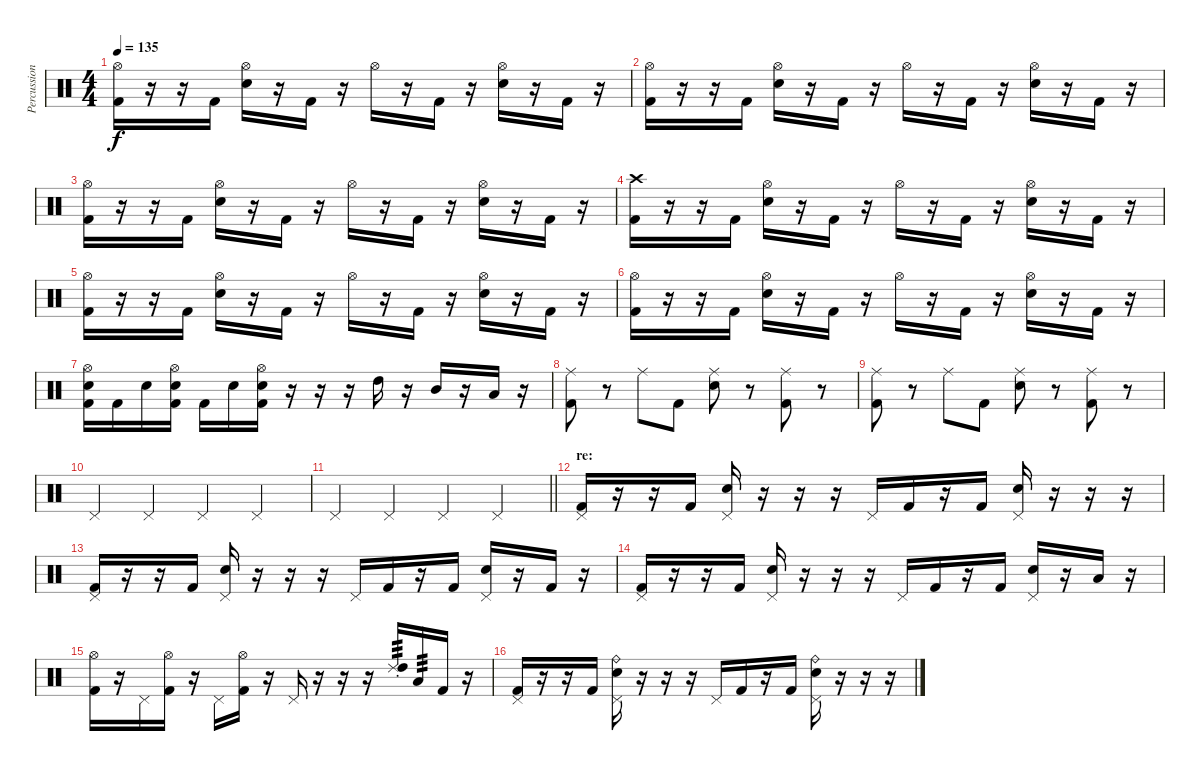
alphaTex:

\track ("Percussion" "Percussion") {instrument percussion}
\staff {score}
\articulation defaults
\ts (4 4)
\tempo 135
\clef neutral
\ks c
("Hi-Hat (open)" "Kick (hit) 2").16{dy f} r.16 r.16 "Kick (hit) 2".16 ("Hi-Hat (open)" "Electric Snare (hit)").16 r.16 "Kick (hit) 2".16 r.16 "Hi-Hat (open)".16 r.16 "Kick (hit) 2".16 r.16 ("Hi-Hat (open)" "Electric Snare (hit)").16 r.16 "Kick (hit) 2".16 r.16 |
("Hi-Hat (open)" "Kick (hit) 2").16 r.16 r.16 "Kick (hit) 2".16 ("Hi-Hat (open)" "Electric Snare (hit)").16 r.16 "Kick (hit) 2".16 r.16 "Hi-Hat (open)".16 r.16 "Kick (hit) 2".16 r.16 ("Hi-Hat (open)" "Electric Snare (hit)").16 r.16 "Kick (hit) 2".16 r.16 |
("Hi-Hat (open)" "Kick (hit) 2").16 r.16 r.16 "Kick (hit) 2".16 ("Hi-Hat (open)" "Electric Snare (hit)").16 r.16 "Kick (hit) 2".16 r.16 "Hi-Hat (open)".16 r.16 "Kick (hit) 2".16 r.16 ("Hi-Hat (open)" "Electric Snare (hit)").16 r.16 "Kick (hit) 2".16 r.16 |
("Crash high (hit)" "Kick (hit) 2").16 r.16 r.16 "Kick (hit) 2".16 ("Hi-Hat (open)" "Electric Snare (hit)").16 r.16 "Kick (hit) 2".16 r.16 "Hi-Hat (open)".16 r.16 "Kick (hit) 2".16 r.16 ("Hi-Hat (open)" "Electric Snare (hit)").16 r.16 "Kick (hit) 2".16 r.16 |
("Hi-Hat (open)" "Kick (hit) 2").16 r.16 r.16 "Kick (hit) 2".16 ("Hi-Hat (open)" "Electric Snare (hit)").16 r.16 "Kick (hit) 2".16 r.16 "Hi-Hat (open)".16 r.16 "Kick (hit) 2".16 r.16 ("Hi-Hat (open)" "Electric Snare (hit)").16 r.16 "Kick (hit) 2".16 r.16 |
("Hi-Hat (open)" "Kick (hit) 2").16 r.16 r.16 "Kick (hit) 2".16 ("Hi-Hat (open)" "Electric Snare (hit)").16 r.16 "Kick (hit) 2".16 r.16 "Hi-Hat (open)".16 r.16 "Kick (hit) 2".16 r.16 ("Hi-Hat (open)" "Electric Snare (hit)").16 r.16 "Kick (hit) 2".16 r.16 |
("Hi-Hat (open)" "Electric Snare (hit)" "Kick (hit) 2").16 "Kick (hit) 2".16 "Electric Snare (hit)".16 ("Hi-Hat (open)" "Electric Snare (hit)" "Kick (hit) 2").16 "Kick (hit) 2".16 "Electric Snare (hit)".16 ("Hi-Hat (open)" "Electric Snare (hit)" "Kick (hit) 2").16 r.16 r.16 r.16 "High Tom (hit)".16 r.16 "Mid Tom (hit)".16 r.16 "Low Tom (hit)".16 r.16 |
("Ride (middle)" "Kick (hit) 2").8 r.8 "Ride (middle)".8 "Kick (hit) 2".8 ("Ride (middle)" "Electric Snare (hit)").8 r.8 ("Ride (middle)" "Kick (hit) 2").8 r.8 |
("Ride (middle)" "Kick (hit) 2").8 r.8 "Ride (middle)".8 "Kick (hit) 2".8 ("Ride (middle)" "Electric Snare (hit)").8 r.8 ("Ride (middle)" "Kick (hit) 2").8 r.8 |
"Pedal Hi-Hat (hit)".4 "Pedal Hi-Hat (hit)".4 "Pedal Hi-Hat (hit)".4 "Pedal Hi-Hat (hit)".4 |
\barLineRight lightlight "Pedal Hi-Hat (hit)".4 "Pedal Hi-Hat (hit)".4 "Pedal Hi-Hat (hit)".4 "Pedal Hi-Hat (hit)".4
|
\section ("" "re:")
("Pedal Hi-Hat (hit)" "Kick (hit) 2").16 r.16 r.16 "Kick (hit) 2".16 ("Electric Snare (hit)" "Pedal Hi-Hat (hit)").16 r.16 r.16 r.16 "Pedal Hi-Hat (hit)".16 "Kick (hit) 2".16 r.16 "Kick (hit) 2".16 ("Electric Snare (hit)" "Pedal Hi-Hat (hit)").16 r.16 r.16 r.16 |
("Pedal Hi-Hat (hit)" "Kick (hit) 2").16 r.16 r.16 "Kick (hit) 2".16 ("Electric Snare (hit)" "Pedal Hi-Hat (hit)").16 r.16 r.16 r.16 "Pedal Hi-Hat (hit)".16 "Kick (hit) 2".16 r.16 "Kick (hit) 2".16 ("Electric Snare (hit)" "Pedal Hi-Hat (hit)").16 r.16 "Kick (hit) 2".16 r.16 |
("Pedal Hi-Hat (hit)" "Kick (hit) 2").16 r.16 r.16 "Kick (hit) 2".16 ("Electric Snare (hit)" "Pedal Hi-Hat (hit)").16 r.16 r.16 r.16 "Pedal Hi-Hat (hit)".16 "Kick (hit) 2".16 r.16 "Kick (hit) 2".16 ("Electric Snare (hit)" "Pedal Hi-Hat (hit)").16 r.16 "Low Tom (hit)".16 r.16 |
("Hi-Hat (open)" "Kick (hit) 2").16 r.16 "Pedal Hi-Hat (hit)".16 ("Hi-Hat (open)" "Kick (hit) 2").16 r.16 "Pedal Hi-Hat (hit)".16 ("Hi-Hat (open)" "Kick (hit) 2").16 r.16 "Pedal Hi-Hat (hit)".16 r.16 r.16 r.16 ("Ride (choke) 2" "High Tom (hit)").16{tp 3} "Low Tom (hit)".16{tp 3} "Kick (hit) 2".16 r.16 |
("Pedal Hi-Hat (hit)" "Kick (hit) 2").16 r.16 r.16 "Kick (hit) 2".16 ("Ride (bell)" "Electric Snare (hit)" "Pedal Hi-Hat (hit)").16 r.16 r.16 r.16 "Pedal Hi-Hat (hit)".16 "Kick (hit) 2".16 r.16 "Kick (hit) 2".16 ("Ride (bell)" "Electric Snare (hit)" "Pedal Hi-Hat (hit)").16 r.16 r.16 r.16
